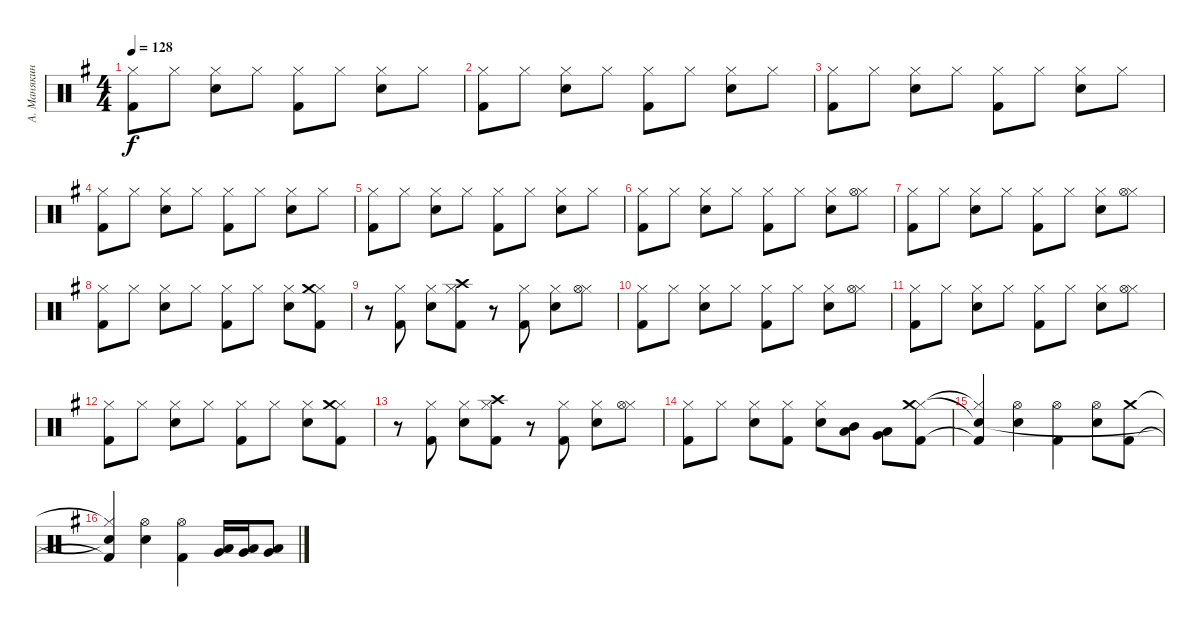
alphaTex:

\track ("А. Манякин" "А. Манякин") {instrument percussion}
\staff {score}
\articulation defaults
\ts (4 4)
\tempo 128
\clef neutral
\ks g
("Kick (hit) 2" "Hi-Hat (closed)").8{dy f} "Hi-Hat (closed)".8 ("Electric Snare (hit)" "Hi-Hat (closed)").8 "Hi-Hat (closed)".8 ("Kick (hit) 2" "Hi-Hat (closed)").8 "Hi-Hat (closed)".8 ("Electric Snare (hit)" "Hi-Hat (closed)").8 "Hi-Hat (closed)".8 |
("Kick (hit) 2" "Hi-Hat (closed)").8 "Hi-Hat (closed)".8 ("Electric Snare (hit)" "Hi-Hat (closed)").8 "Hi-Hat (closed)".8 ("Kick (hit) 2" "Hi-Hat (closed)").8 "Hi-Hat (closed)".8 ("Electric Snare (hit)" "Hi-Hat (closed)").8 "Hi-Hat (closed)".8 |
("Kick (hit) 2" "Hi-Hat (closed)").8 "Hi-Hat (closed)".8 ("Electric Snare (hit)" "Hi-Hat (closed)").8 "Hi-Hat (closed)".8 ("Kick (hit) 2" "Hi-Hat (closed)").8 "Hi-Hat (closed)".8 ("Electric Snare (hit)" "Hi-Hat (closed)").8 "Hi-Hat (closed)".8 |
("Kick (hit) 2" "Hi-Hat (closed)").8 "Hi-Hat (closed)".8 ("Electric Snare (hit)" "Hi-Hat (closed)").8 "Hi-Hat (closed)".8 ("Kick (hit) 2" "Hi-Hat (closed)").8 "Hi-Hat (closed)".8 ("Electric Snare (hit)" "Hi-Hat (closed)").8 "Hi-Hat (closed)".8 |
("Kick (hit) 2" "Hi-Hat (closed)").8 "Hi-Hat (closed)".8 ("Electric Snare (hit)" "Hi-Hat (closed)").8 "Hi-Hat (closed)".8 ("Kick (hit) 2" "Hi-Hat (closed)").8 "Hi-Hat (closed)".8 ("Electric Snare (hit)" "Hi-Hat (closed)").8 "Hi-Hat (closed)".8 |
("Kick (hit) 2" "Hi-Hat (closed)").8 "Hi-Hat (closed)".8 ("Electric Snare (hit)" "Hi-Hat (closed)").8 "Hi-Hat (closed)".8 ("Kick (hit) 2" "Hi-Hat (closed)").8 "Hi-Hat (closed)".8 ("Electric Snare (hit)" "Hi-Hat (closed)").8 ("Hi-Hat (closed)" "Hi-Hat (open)").8 |
("Kick (hit) 2" "Hi-Hat (closed)").8 "Hi-Hat (closed)".8 ("Electric Snare (hit)" "Hi-Hat (closed)").8 "Hi-Hat (closed)".8 ("Kick (hit) 2" "Hi-Hat (closed)").8 "Hi-Hat (closed)".8 ("Electric Snare (hit)" "Hi-Hat (closed)").8 ("Hi-Hat (closed)" "Hi-Hat (open)").8 |
("Kick (hit) 2" "Hi-Hat (closed)").8 "Hi-Hat (closed)".8 ("Electric Snare (hit)" "Hi-Hat (closed)").8 "Hi-Hat (closed)".8 ("Kick (hit) 2" "Hi-Hat (closed)").8 "Hi-Hat (closed)".8 ("Electric Snare (hit)" "Hi-Hat (closed)").8 ("Kick (hit) 2" "Hi-Hat (closed)" "Crash medium (hit)").8 |
r.8 ("Kick (hit) 2" "Hi-Hat (closed)").8 ("Electric Snare (hit)" "Hi-Hat (closed)").8 ("Kick (hit) 2" "Hi-Hat (closed)" "Crash high (hit)").8 r.8 ("Kick (hit) 2" "Hi-Hat (closed)").8 ("Electric Snare (hit)" "Hi-Hat (closed)").8 ("Hi-Hat (closed)" "Hi-Hat (open)").8 |
("Kick (hit) 2" "Hi-Hat (closed)").8 "Hi-Hat (closed)".8 ("Electric Snare (hit)" "Hi-Hat (closed)").8 "Hi-Hat (closed)".8 ("Kick (hit) 2" "Hi-Hat (closed)").8 "Hi-Hat (closed)".8 ("Electric Snare (hit)" "Hi-Hat (closed)").8 ("Hi-Hat (closed)" "Hi-Hat (open)").8 |
("Kick (hit) 2" "Hi-Hat (closed)").8 "Hi-Hat (closed)".8 ("Electric Snare (hit)" "Hi-Hat (closed)").8 "Hi-Hat (closed)".8 ("Kick (hit) 2" "Hi-Hat (closed)").8 "Hi-Hat (closed)".8 ("Electric Snare (hit)" "Hi-Hat (closed)").8 ("Hi-Hat (closed)" "Hi-Hat (open)").8 |
("Kick (hit) 2" "Hi-Hat (closed)").8 "Hi-Hat (closed)".8 ("Electric Snare (hit)" "Hi-Hat (closed)").8 "Hi-Hat (closed)".8 ("Kick (hit) 2" "Hi-Hat (closed)").8 "Hi-Hat (closed)".8 ("Electric Snare (hit)" "Hi-Hat (closed)").8 ("Kick (hit) 2" "Hi-Hat (closed)" "Crash medium (hit)").8 |
r.8 ("Kick (hit) 2" "Hi-Hat (closed)").8 ("Electric Snare (hit)" "Hi-Hat (closed)").8 ("Kick (hit) 2" "Hi-Hat (closed)" "Crash high (hit)").8 r.8 ("Kick (hit) 2" "Hi-Hat (closed)").8 ("Electric Snare (hit)" "Hi-Hat (closed)").8 ("Hi-Hat (closed)" "Hi-Hat (open)").8 |
("Kick (hit) 2" "Hi-Hat (closed)").8 "Hi-Hat (closed)".8 ("Electric Snare (hit)" "Hi-Hat (closed)").8 ("Kick (hit) 2" "Hi-Hat (closed)").8 ("Electric Snare (hit)" "Hi-Hat (closed)").8 ("Mid Tom (hit)" "Low Tom (hit)").8 ("Low Tom (hit)" "Very Low Tom (hit)").8 ("Kick (hit) 2" "Hi-Hat (closed)" "Crash medium (hit)").8 |
("Kick (hit) 2"{t} "Hi-Hat (closed)"{t} "Snare (hit)"{t}).4 ("Electric Snare (hit)" "Hi-Hat (open)").4 ("Kick (hit) 2" "Hi-Hat (open)").4 ("Electric Snare (hit)" "Hi-Hat (open)").8 ("Kick (hit) 2" "Crash medium (hit)").8 |
("Kick (hit) 2"{t} "Hi-Hat (closed)"{t} "Snare (hit)"{t}).4 ("Electric Snare (hit)" "Hi-Hat (open)").4 ("Kick (hit) 2" "Hi-Hat (open)").4 ("Very Low Tom (hit)" "Low Tom (hit)").16 ("Very Low Tom (hit)" "Low Tom (hit)").16 ("Very Low Tom (hit)" "Low Tom (hit)").8
